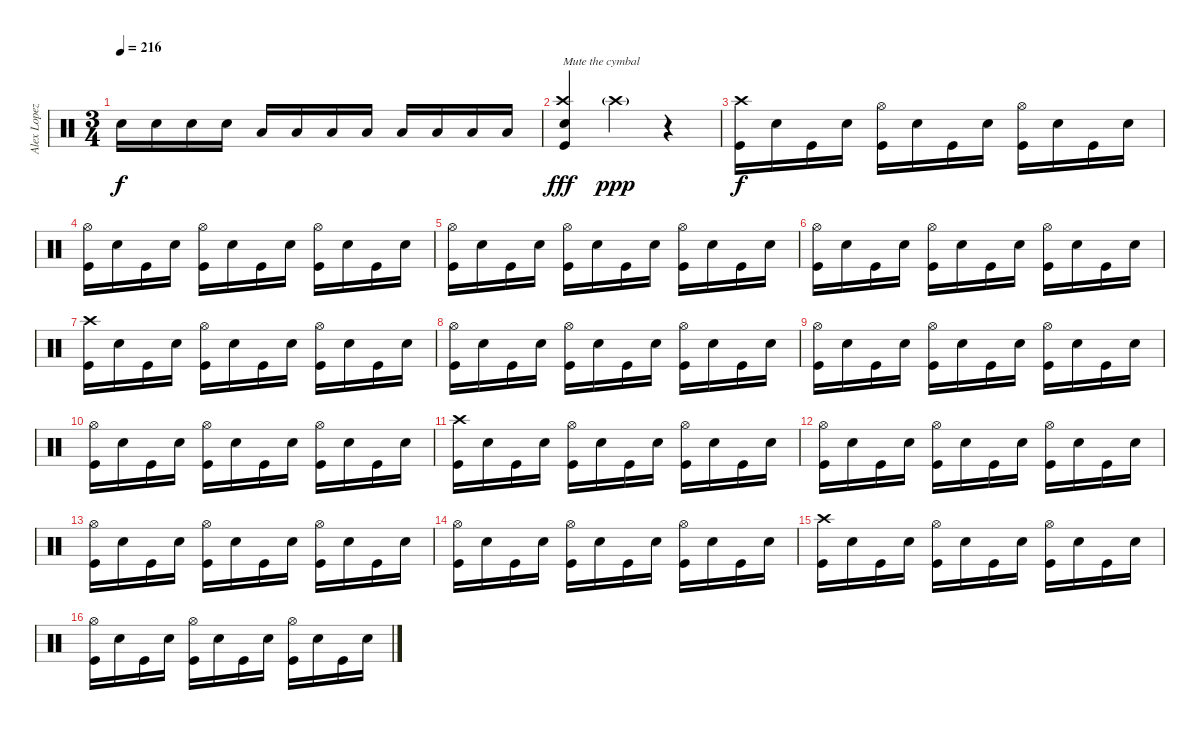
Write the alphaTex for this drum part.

\track ("Alex Lopez" "Alex Lopez") {instrument percussion}
\staff {score}
\articulation defaults
\ts (3 4)
\tempo 216
\clef neutral
\ks c "Electric Snare (hit)".16{dy f} "Electric Snare (hit)".16 "Electric Snare (hit)".16 "Electric Snare (hit)".16 "Low Tom (hit)".16 "Low Tom (hit)".16 "Low Tom (hit)".16 "Low Tom (hit)".16 "Low Floor Tom (hit)".16 "Low Floor Tom (hit)".16 "Low Floor Tom (hit)".16 "Low Floor Tom (hit)".16
|
("Crash high (hit)" "Electric Snare (hit)" "Kick (hit)").4{txt "Mute the cymbal" dy fff} "Crash high (hit)"{g}.4{dy ppp} r.4 |
("Crash high (hit)" "Kick (hit)").16{dy f} "Electric Snare (hit)".16 "Kick (hit)".16 "Electric Snare (hit)".16 ("Hi-Hat (open)" "Kick (hit)").16 "Electric Snare (hit)".16 "Kick (hit)".16 "Electric Snare (hit)".16 ("Hi-Hat (open)" "Kick (hit)").16 "Electric Snare (hit)".16 "Kick (hit)".16 "Electric Snare (hit)".16 |
("Hi-Hat (open)" "Kick (hit)").16 "Electric Snare (hit)".16 "Kick (hit)".16 "Electric Snare (hit)".16 ("Hi-Hat (open)" "Kick (hit)").16 "Electric Snare (hit)".16 "Kick (hit)".16 "Electric Snare (hit)".16 ("Hi-Hat (open)" "Kick (hit)").16 "Electric Snare (hit)".16 "Kick (hit)".16 "Electric Snare (hit)".16 |
("Hi-Hat (open)" "Kick (hit)").16 "Electric Snare (hit)".16 "Kick (hit)".16 "Electric Snare (hit)".16 ("Hi-Hat (open)" "Kick (hit)").16 "Electric Snare (hit)".16 "Kick (hit)".16 "Electric Snare (hit)".16 ("Hi-Hat (open)" "Kick (hit)").16 "Electric Snare (hit)".16 "Kick (hit)".16 "Electric Snare (hit)".16 |
("Hi-Hat (open)" "Kick (hit)").16 "Electric Snare (hit)".16 "Kick (hit)".16 "Electric Snare (hit)".16 ("Hi-Hat (open)" "Kick (hit)").16 "Electric Snare (hit)".16 "Kick (hit)".16 "Electric Snare (hit)".16 ("Hi-Hat (open)" "Kick (hit)").16 "Electric Snare (hit)".16 "Kick (hit)".16 "Electric Snare (hit)".16 |
("Crash high (hit)" "Kick (hit)").16 "Electric Snare (hit)".16 "Kick (hit)".16 "Electric Snare (hit)".16 ("Hi-Hat (open)" "Kick (hit)").16 "Electric Snare (hit)".16 "Kick (hit)".16 "Electric Snare (hit)".16 ("Hi-Hat (open)" "Kick (hit)").16 "Electric Snare (hit)".16 "Kick (hit)".16 "Electric Snare (hit)".16 |
("Hi-Hat (open)" "Kick (hit)").16 "Electric Snare (hit)".16 "Kick (hit)".16 "Electric Snare (hit)".16 ("Hi-Hat (open)" "Kick (hit)").16 "Electric Snare (hit)".16 "Kick (hit)".16 "Electric Snare (hit)".16 ("Hi-Hat (open)" "Kick (hit)").16 "Electric Snare (hit)".16 "Kick (hit)".16 "Electric Snare (hit)".16 |
("Hi-Hat (open)" "Kick (hit)").16 "Electric Snare (hit)".16 "Kick (hit)".16 "Electric Snare (hit)".16 ("Hi-Hat (open)" "Kick (hit)").16 "Electric Snare (hit)".16 "Kick (hit)".16 "Electric Snare (hit)".16 ("Hi-Hat (open)" "Kick (hit)").16 "Electric Snare (hit)".16 "Kick (hit)".16 "Electric Snare (hit)".16 |
("Hi-Hat (open)" "Kick (hit)").16 "Electric Snare (hit)".16 "Kick (hit)".16 "Electric Snare (hit)".16 ("Hi-Hat (open)" "Kick (hit)").16 "Electric Snare (hit)".16 "Kick (hit)".16 "Electric Snare (hit)".16 ("Hi-Hat (open)" "Kick (hit)").16 "Electric Snare (hit)".16 "Kick (hit)".16 "Electric Snare (hit)".16 |
("Crash high (hit)" "Kick (hit)").16 "Electric Snare (hit)".16 "Kick (hit)".16 "Electric Snare (hit)".16 ("Hi-Hat (open)" "Kick (hit)").16 "Electric Snare (hit)".16 "Kick (hit)".16 "Electric Snare (hit)".16 ("Hi-Hat (open)" "Kick (hit)").16 "Electric Snare (hit)".16 "Kick (hit)".16 "Electric Snare (hit)".16 |
("Hi-Hat (open)" "Kick (hit)").16 "Electric Snare (hit)".16 "Kick (hit)".16 "Electric Snare (hit)".16 ("Hi-Hat (open)" "Kick (hit)").16 "Electric Snare (hit)".16 "Kick (hit)".16 "Electric Snare (hit)".16 ("Hi-Hat (open)" "Kick (hit)").16 "Electric Snare (hit)".16 "Kick (hit)".16 "Electric Snare (hit)".16 |
("Hi-Hat (open)" "Kick (hit)").16 "Electric Snare (hit)".16 "Kick (hit)".16 "Electric Snare (hit)".16 ("Hi-Hat (open)" "Kick (hit)").16 "Electric Snare (hit)".16 "Kick (hit)".16 "Electric Snare (hit)".16 ("Hi-Hat (open)" "Kick (hit)").16 "Electric Snare (hit)".16 "Kick (hit)".16 "Electric Snare (hit)".16 |
("Hi-Hat (open)" "Kick (hit)").16 "Electric Snare (hit)".16 "Kick (hit)".16 "Electric Snare (hit)".16 ("Hi-Hat (open)" "Kick (hit)").16 "Electric Snare (hit)".16 "Kick (hit)".16 "Electric Snare (hit)".16 ("Hi-Hat (open)" "Kick (hit)").16 "Electric Snare (hit)".16 "Kick (hit)".16 "Electric Snare (hit)".16 |
("Crash high (hit)" "Kick (hit)").16 "Electric Snare (hit)".16 "Kick (hit)".16 "Electric Snare (hit)".16 ("Hi-Hat (open)" "Kick (hit)").16 "Electric Snare (hit)".16 "Kick (hit)".16 "Electric Snare (hit)".16 ("Hi-Hat (open)" "Kick (hit)").16 "Electric Snare (hit)".16 "Kick (hit)".16 "Electric Snare (hit)".16 |
("Hi-Hat (open)" "Kick (hit)").16 "Electric Snare (hit)".16 "Kick (hit)".16 "Electric Snare (hit)".16 ("Hi-Hat (open)" "Kick (hit)").16 "Electric Snare (hit)".16 "Kick (hit)".16 "Electric Snare (hit)".16 ("Hi-Hat (open)" "Kick (hit)").16 "Electric Snare (hit)".16 "Kick (hit)".16 "Electric Snare (hit)".16
